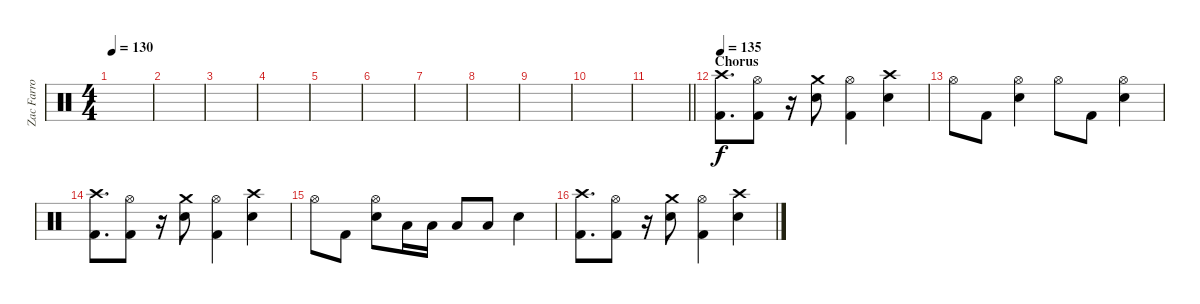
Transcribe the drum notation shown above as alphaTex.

\track ("Zac Farro" "Zac Farro") {instrument percussion}
\staff {score}
\articulation defaults
\ts (4 4)
\tempo 130
\clef neutral
\ks c
|
|
|
|
|
|
|
|
|
|
\barLineRight lightlight
|
\section ("" "Chorus")
\tempo 135
("Crash high (hit)" "Kick (hit) 2").8{d} ("Hi-Hat (open)" "Kick (hit) 2").8 r.16 ("Crash medium (hit)" "Electric Snare (hit)").8 ("Hi-Hat (open)" "Kick (hit) 2").4 ("Crash high (hit)" "Electric Snare (hit)").4 |
"Hi-Hat (open)".8 "Kick (hit) 2".8 ("Hi-Hat (open)" "Electric Snare (hit)").4 "Hi-Hat (open)".8 "Kick (hit) 2".8 ("Hi-Hat (open)" "Electric Snare (hit)").4 |
("Crash high (hit)" "Kick (hit) 2").8{d} ("Hi-Hat (open)" "Kick (hit) 2").8 r.16 ("Crash medium (hit)" "Electric Snare (hit)").8 ("Hi-Hat (open)" "Kick (hit) 2").4 ("Crash high (hit)" "Electric Snare (hit)").4 |
"Hi-Hat (open)".8 "Kick (hit) 2".8 ("Hi-Hat (open)" "Electric Snare (hit)").8 "Low Tom (hit)".16 "Low Tom (hit)".16 "Low Tom (hit)".8 "Low Floor Tom (hit)".8 "Electric Snare (hit)".4 |
("Crash high (hit)" "Kick (hit) 2").8{d} ("Hi-Hat (open)" "Kick (hit) 2").8 r.16 ("Crash medium (hit)" "Electric Snare (hit)").8 ("Hi-Hat (open)" "Kick (hit) 2").4 ("Crash high (hit)" "Electric Snare (hit)").4
